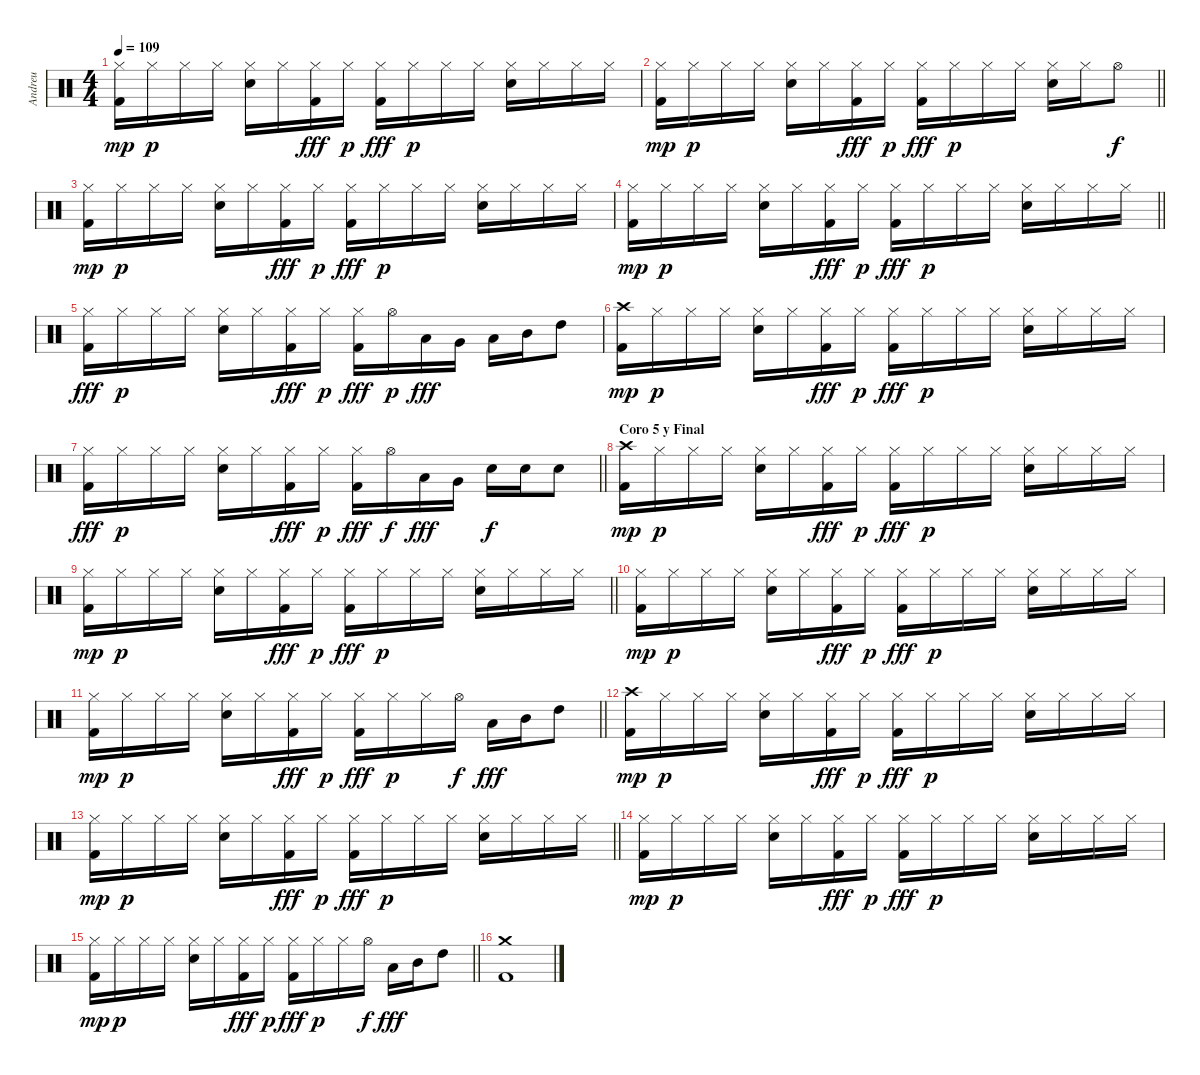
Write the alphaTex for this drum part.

\track ("Andreu" "Andreu") {instrument percussion}
\staff {score}
\articulation defaults
\ts (4 4)
\tempo 109
\clef neutral
\ks c
("Hi-Hat (closed)" "Kick (hit) 2").16{dy mp} "Hi-Hat (closed)".16{dy p} "Hi-Hat (closed)".16 "Hi-Hat (closed)".16 ("Hi-Hat (closed)" "Snare (hit) 2").16 "Hi-Hat (closed)".16 ("Hi-Hat (closed)" "Kick (hit) 2").16{dy fff} "Hi-Hat (closed)".16{dy p} ("Hi-Hat (closed)" "Kick (hit) 2").16{dy fff} "Hi-Hat (closed)".16{dy p} "Hi-Hat (closed)".16 "Hi-Hat (closed)".16 ("Hi-Hat (closed)" "Snare (hit) 2").16 "Hi-Hat (closed)".16 "Hi-Hat (closed)".16 "Hi-Hat (closed)".16 |
\barLineRight lightlight
("Hi-Hat (closed)" "Kick (hit) 2").16{dy mp} "Hi-Hat (closed)".16{dy p} "Hi-Hat (closed)".16 "Hi-Hat (closed)".16 ("Hi-Hat (closed)" "Snare (hit) 2").16 "Hi-Hat (closed)".16 ("Hi-Hat (closed)" "Kick (hit) 2").16{dy fff} "Hi-Hat (closed)".16{dy p} ("Hi-Hat (closed)" "Kick (hit) 2").16{dy fff} "Hi-Hat (closed)".16{dy p} "Hi-Hat (closed)".16 "Hi-Hat (closed)".16 ("Hi-Hat (closed)" "Snare (hit) 2").16 "Hi-Hat (closed)".16 "Hi-Hat (open)".8{dy f} |
("Hi-Hat (closed)" "Kick (hit) 2").16{dy mp} "Hi-Hat (closed)".16{dy p} "Hi-Hat (closed)".16 "Hi-Hat (closed)".16 ("Hi-Hat (closed)" "Snare (hit) 2").16 "Hi-Hat (closed)".16 ("Hi-Hat (closed)" "Kick (hit) 2").16{dy fff} "Hi-Hat (closed)".16{dy p} ("Hi-Hat (closed)" "Kick (hit) 2").16{dy fff} "Hi-Hat (closed)".16{dy p} "Hi-Hat (closed)".16 "Hi-Hat (closed)".16 ("Hi-Hat (closed)" "Snare (hit) 2").16 "Hi-Hat (closed)".16 "Hi-Hat (closed)".16 "Hi-Hat (closed)".16 |
\barLineRight lightlight
("Hi-Hat (closed)" "Kick (hit) 2").16{dy mp} "Hi-Hat (closed)".16{dy p} "Hi-Hat (closed)".16 "Hi-Hat (closed)".16 ("Hi-Hat (closed)" "Snare (hit) 2").16 "Hi-Hat (closed)".16 ("Hi-Hat (closed)" "Kick (hit) 2").16{dy fff} "Hi-Hat (closed)".16{dy p} ("Hi-Hat (closed)" "Kick (hit) 2").16{dy fff} "Hi-Hat (closed)".16{dy p} "Hi-Hat (closed)".16 "Hi-Hat (closed)".16 ("Hi-Hat (closed)" "Snare (hit) 2").16 "Hi-Hat (closed)".16 "Hi-Hat (closed)".16 "Hi-Hat (closed)".16 |
("Hi-Hat (closed)" "Kick (hit) 2").16{dy fff} "Hi-Hat (closed)".16{dy p} "Hi-Hat (closed)".16 "Hi-Hat (closed)".16 ("Hi-Hat (closed)" "Snare (hit) 2").16 "Hi-Hat (closed)".16 ("Hi-Hat (closed)" "Kick (hit) 2").16{dy fff} "Hi-Hat (closed)".16{dy p} ("Hi-Hat (closed)" "Kick (hit) 2").16{dy fff} "Hi-Hat (open)".16{dy p} "Low Floor Tom (hit)".16{dy fff} "Very Low Tom (hit)".16 "Low Tom (hit)".16 "Mid Tom (hit)".16 "High Tom (hit)".8 |
("Crash high (hit)" "Kick (hit) 2").16{dy mp} "Hi-Hat (closed)".16{dy p} "Hi-Hat (closed)".16 "Hi-Hat (closed)".16 ("Hi-Hat (closed)" "Snare (hit) 2").16 "Hi-Hat (closed)".16 ("Hi-Hat (closed)" "Kick (hit) 2").16{dy fff} "Hi-Hat (closed)".16{dy p} ("Hi-Hat (closed)" "Kick (hit) 2").16{dy fff} "Hi-Hat (closed)".16{dy p} "Hi-Hat (closed)".16 "Hi-Hat (closed)".16 ("Hi-Hat (closed)" "Snare (hit) 2").16 "Hi-Hat (closed)".16 "Hi-Hat (closed)".16 "Hi-Hat (closed)".16 |
\barLineRight lightlight
("Hi-Hat (closed)" "Kick (hit) 2").16{dy fff} "Hi-Hat (closed)".16{dy p} "Hi-Hat (closed)".16 "Hi-Hat (closed)".16 ("Hi-Hat (closed)" "Snare (hit) 2").16 "Hi-Hat (closed)".16 ("Hi-Hat (closed)" "Kick (hit) 2").16{dy fff} "Hi-Hat (closed)".16{dy p} ("Hi-Hat (closed)" "Kick (hit) 2").16{dy fff} "Hi-Hat (open)".16{dy f} "Low Floor Tom (hit)".16{dy fff} "Very Low Tom (hit)".16 "Snare (hit) 2".16{dy f} "Snare (hit) 2".16 "Snare (hit) 2".8 |
\section ("" "Coro 5 y Final")
("Crash high (hit)" "Kick (hit) 2").16{dy mp} "Hi-Hat (closed)".16{dy p} "Hi-Hat (closed)".16 "Hi-Hat (closed)".16 ("Hi-Hat (closed)" "Snare (hit) 2").16 "Hi-Hat (closed)".16 ("Hi-Hat (closed)" "Kick (hit) 2").16{dy fff} "Hi-Hat (closed)".16{dy p} ("Hi-Hat (closed)" "Kick (hit) 2").16{dy fff} "Hi-Hat (closed)".16{dy p} "Hi-Hat (closed)".16 "Hi-Hat (closed)".16 ("Hi-Hat (closed)" "Snare (hit) 2").16 "Hi-Hat (closed)".16 "Hi-Hat (closed)".16 "Hi-Hat (closed)".16 |
\barLineRight lightlight
("Hi-Hat (closed)" "Kick (hit) 2").16{dy mp} "Hi-Hat (closed)".16{dy p} "Hi-Hat (closed)".16 "Hi-Hat (closed)".16 ("Hi-Hat (closed)" "Snare (hit) 2").16 "Hi-Hat (closed)".16 ("Hi-Hat (closed)" "Kick (hit) 2").16{dy fff} "Hi-Hat (closed)".16{dy p} ("Hi-Hat (closed)" "Kick (hit) 2").16{dy fff} "Hi-Hat (closed)".16{dy p} "Hi-Hat (closed)".16 "Hi-Hat (closed)".16 ("Hi-Hat (closed)" "Snare (hit) 2").16 "Hi-Hat (closed)".16 "Hi-Hat (closed)".16 "Hi-Hat (closed)".16 |
("Hi-Hat (closed)" "Kick (hit) 2").16{dy mp} "Hi-Hat (closed)".16{dy p} "Hi-Hat (closed)".16 "Hi-Hat (closed)".16 ("Hi-Hat (closed)" "Snare (hit) 2").16 "Hi-Hat (closed)".16 ("Hi-Hat (closed)" "Kick (hit) 2").16{dy fff} "Hi-Hat (closed)".16{dy p} ("Hi-Hat (closed)" "Kick (hit) 2").16{dy fff} "Hi-Hat (closed)".16{dy p} "Hi-Hat (closed)".16 "Hi-Hat (closed)".16 ("Hi-Hat (closed)" "Snare (hit) 2").16 "Hi-Hat (closed)".16 "Hi-Hat (closed)".16 "Hi-Hat (closed)".16 |
\barLineRight lightlight
("Hi-Hat (closed)" "Kick (hit) 2").16{dy mp} "Hi-Hat (closed)".16{dy p} "Hi-Hat (closed)".16 "Hi-Hat (closed)".16 ("Hi-Hat (closed)" "Snare (hit) 2").16 "Hi-Hat (closed)".16 ("Hi-Hat (closed)" "Kick (hit) 2").16{dy fff} "Hi-Hat (closed)".16{dy p} ("Hi-Hat (closed)" "Kick (hit) 2").16{dy fff} "Hi-Hat (closed)".16{dy p} "Hi-Hat (closed)".16 "Hi-Hat (open)".16{dy f} "Low Tom (hit)".16{dy fff} "Mid Tom (hit)".16 "High Tom (hit)".8 |
("Crash high (hit)" "Kick (hit) 2").16{dy mp} "Hi-Hat (closed)".16{dy p} "Hi-Hat (closed)".16 "Hi-Hat (closed)".16 ("Hi-Hat (closed)" "Snare (hit) 2").16 "Hi-Hat (closed)".16 ("Hi-Hat (closed)" "Kick (hit) 2").16{dy fff} "Hi-Hat (closed)".16{dy p} ("Hi-Hat (closed)" "Kick (hit) 2").16{dy fff} "Hi-Hat (closed)".16{dy p} "Hi-Hat (closed)".16 "Hi-Hat (closed)".16 ("Hi-Hat (closed)" "Snare (hit) 2").16 "Hi-Hat (closed)".16 "Hi-Hat (closed)".16 "Hi-Hat (closed)".16 |
\barLineRight lightlight
("Hi-Hat (closed)" "Kick (hit) 2").16{dy mp} "Hi-Hat (closed)".16{dy p} "Hi-Hat (closed)".16 "Hi-Hat (closed)".16 ("Hi-Hat (closed)" "Snare (hit) 2").16 "Hi-Hat (closed)".16 ("Hi-Hat (closed)" "Kick (hit) 2").16{dy fff} "Hi-Hat (closed)".16{dy p} ("Hi-Hat (closed)" "Kick (hit) 2").16{dy fff} "Hi-Hat (closed)".16{dy p} "Hi-Hat (closed)".16 "Hi-Hat (closed)".16 ("Hi-Hat (closed)" "Snare (hit) 2").16 "Hi-Hat (closed)".16 "Hi-Hat (closed)".16 "Hi-Hat (closed)".16 |
("Hi-Hat (closed)" "Kick (hit) 2").16{dy mp} "Hi-Hat (closed)".16{dy p} "Hi-Hat (closed)".16 "Hi-Hat (closed)".16 ("Hi-Hat (closed)" "Snare (hit) 2").16 "Hi-Hat (closed)".16 ("Hi-Hat (closed)" "Kick (hit) 2").16{dy fff} "Hi-Hat (closed)".16{dy p} ("Hi-Hat (closed)" "Kick (hit) 2").16{dy fff} "Hi-Hat (closed)".16{dy p} "Hi-Hat (closed)".16 "Hi-Hat (closed)".16 ("Hi-Hat (closed)" "Snare (hit) 2").16 "Hi-Hat (closed)".16 "Hi-Hat (closed)".16 "Hi-Hat (closed)".16 |
\barLineRight lightlight
("Hi-Hat (closed)" "Kick (hit) 2").16{dy mp} "Hi-Hat (closed)".16{dy p} "Hi-Hat (closed)".16 "Hi-Hat (closed)".16 ("Hi-Hat (closed)" "Snare (hit) 2").16 "Hi-Hat (closed)".16 ("Hi-Hat (closed)" "Kick (hit) 2").16{dy fff} "Hi-Hat (closed)".16{dy p} ("Hi-Hat (closed)" "Kick (hit) 2").16{dy fff} "Hi-Hat (closed)".16{dy p} "Hi-Hat (closed)".16 "Hi-Hat (open)".16{dy f} "Low Tom (hit)".16{dy fff} "Mid Tom (hit)".16 "High Tom (hit)".8 |
("Crash medium (hit)" "Kick (hit) 2").1
